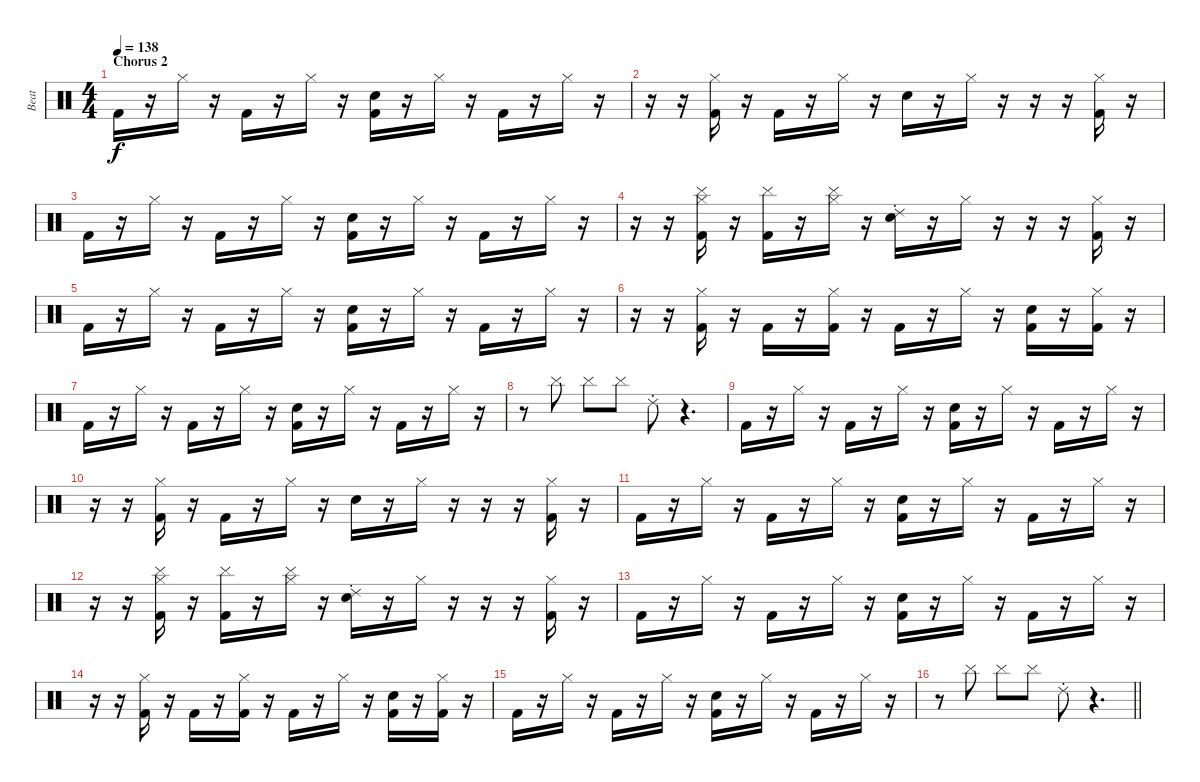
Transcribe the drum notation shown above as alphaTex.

\track ("Beat" "Beat") {instrument percussion}
\staff {score}
\articulation defaults
\ts (4 4)
\section ("" "Chorus 2")
\tempo 138
\clef neutral
\ks c "Kick (hit) 2".16{dy f}
r.16 "Hi-Hat (closed)".16 r.16 "Kick (hit) 2".16 r.16 "Hi-Hat (closed)".16 r.16 ("Electric Snare (hit)" "Kick (hit) 2").16 r.16 "Hi-Hat (closed)".16 r.16 "Kick (hit) 2".16 r.16 "Hi-Hat (closed)".16 r.16 |
r.16 r.16 ("Hi-Hat (closed)" "Kick (hit) 2").16 r.16 "Kick (hit) 2".16 r.16 "Hi-Hat (closed)".16 r.16 "Electric Snare (hit)".16 r.16 "Hi-Hat (closed)".16 r.16 r.16 r.16 ("Hi-Hat (closed)" "Kick (hit) 2").16 r.16 |
"Kick (hit) 2".16 r.16 "Hi-Hat (closed)".16 r.16 "Kick (hit) 2".16 r.16 "Hi-Hat (closed)".16 r.16 ("Electric Snare (hit)" "Kick (hit) 2").16 r.16 "Hi-Hat (closed)".16 r.16 "Kick (hit) 2".16 r.16 "Hi-Hat (closed)".16 r.16 |
r.16 r.16 ("Cymbal (hit)" "Hi-Hat (closed)" "Kick (hit) 2").16 r.16 ("Cymbal (hit)" "Kick (hit) 2").16 r.16 ("Cymbal (hit)" "Hi-Hat (closed)").16 r.16 ("Ride (choke) 2" "Electric Snare (hit)").16 r.16 "Hi-Hat (closed)".16 r.16 r.16 r.16 ("Hi-Hat (closed)" "Kick (hit) 2").16 r.16 |
"Kick (hit) 2".16 r.16 "Hi-Hat (closed)".16 r.16 "Kick (hit) 2".16 r.16 "Hi-Hat (closed)".16 r.16 ("Electric Snare (hit)" "Kick (hit) 2").16 r.16 "Hi-Hat (closed)".16 r.16 "Kick (hit) 2".16 r.16 "Hi-Hat (closed)".16 r.16 |
r.16 r.16 ("Hi-Hat (closed)" "Kick (hit) 2").16 r.16 "Kick (hit) 2".16 r.16 ("Hi-Hat (closed)" "Kick (hit) 2").16 r.16 "Kick (hit) 2".16 r.16 "Hi-Hat (closed)".16 r.16 ("Electric Snare (hit)" "Kick (hit) 2").16 r.16 ("Hi-Hat (closed)" "Kick (hit) 2").16 r.16 |
"Kick (hit) 2".16 r.16 "Hi-Hat (closed)".16 r.16 "Kick (hit) 2".16 r.16 "Hi-Hat (closed)".16 r.16 ("Electric Snare (hit)" "Kick (hit) 2").16 r.16 "Hi-Hat (closed)".16 r.16 "Kick (hit) 2".16 r.16 "Hi-Hat (closed)".16 r.16 |
r.8 "Cymbal (hit)".8 "Cymbal (hit)".8 "Cymbal (hit)".8 "Ride (choke) 2".8 r.4{d} |
"Kick (hit) 2".16 r.16 "Hi-Hat (closed)".16 r.16 "Kick (hit) 2".16 r.16 "Hi-Hat (closed)".16 r.16 ("Electric Snare (hit)" "Kick (hit) 2").16 r.16 "Hi-Hat (closed)".16 r.16 "Kick (hit) 2".16 r.16 "Hi-Hat (closed)".16 r.16 |
r.16 r.16 ("Hi-Hat (closed)" "Kick (hit) 2").16 r.16 "Kick (hit) 2".16 r.16 "Hi-Hat (closed)".16 r.16 "Electric Snare (hit)".16 r.16 "Hi-Hat (closed)".16 r.16 r.16 r.16 ("Hi-Hat (closed)" "Kick (hit) 2").16 r.16 |
"Kick (hit) 2".16 r.16 "Hi-Hat (closed)".16 r.16 "Kick (hit) 2".16 r.16 "Hi-Hat (closed)".16 r.16 ("Electric Snare (hit)" "Kick (hit) 2").16 r.16 "Hi-Hat (closed)".16 r.16 "Kick (hit) 2".16 r.16 "Hi-Hat (closed)".16 r.16 |
r.16 r.16 ("Cymbal (hit)" "Hi-Hat (closed)" "Kick (hit) 2").16 r.16 ("Cymbal (hit)" "Kick (hit) 2").16 r.16 ("Cymbal (hit)" "Hi-Hat (closed)").16 r.16 ("Ride (choke) 2" "Electric Snare (hit)").16 r.16 "Hi-Hat (closed)".16 r.16 r.16 r.16 ("Hi-Hat (closed)" "Kick (hit) 2").16 r.16 |
"Kick (hit) 2".16 r.16 "Hi-Hat (closed)".16 r.16 "Kick (hit) 2".16 r.16 "Hi-Hat (closed)".16 r.16 ("Electric Snare (hit)" "Kick (hit) 2").16 r.16 "Hi-Hat (closed)".16 r.16 "Kick (hit) 2".16 r.16 "Hi-Hat (closed)".16 r.16 |
r.16 r.16 ("Hi-Hat (closed)" "Kick (hit) 2").16 r.16 "Kick (hit) 2".16 r.16 ("Hi-Hat (closed)" "Kick (hit) 2").16 r.16 "Kick (hit) 2".16 r.16 "Hi-Hat (closed)".16 r.16 ("Electric Snare (hit)" "Kick (hit) 2").16 r.16 ("Hi-Hat (closed)" "Kick (hit) 2").16 r.16 |
"Kick (hit) 2".16 r.16 "Hi-Hat (closed)".16 r.16 "Kick (hit) 2".16 r.16 "Hi-Hat (closed)".16 r.16 ("Electric Snare (hit)" "Kick (hit) 2").16 r.16 "Hi-Hat (closed)".16 r.16 "Kick (hit) 2".16 r.16 "Hi-Hat (closed)".16 r.16 |
\barLineRight lightlight
r.8 "Cymbal (hit)".8 "Cymbal (hit)".8 "Cymbal (hit)".8 "Ride (choke) 2".8 r.4{d}
